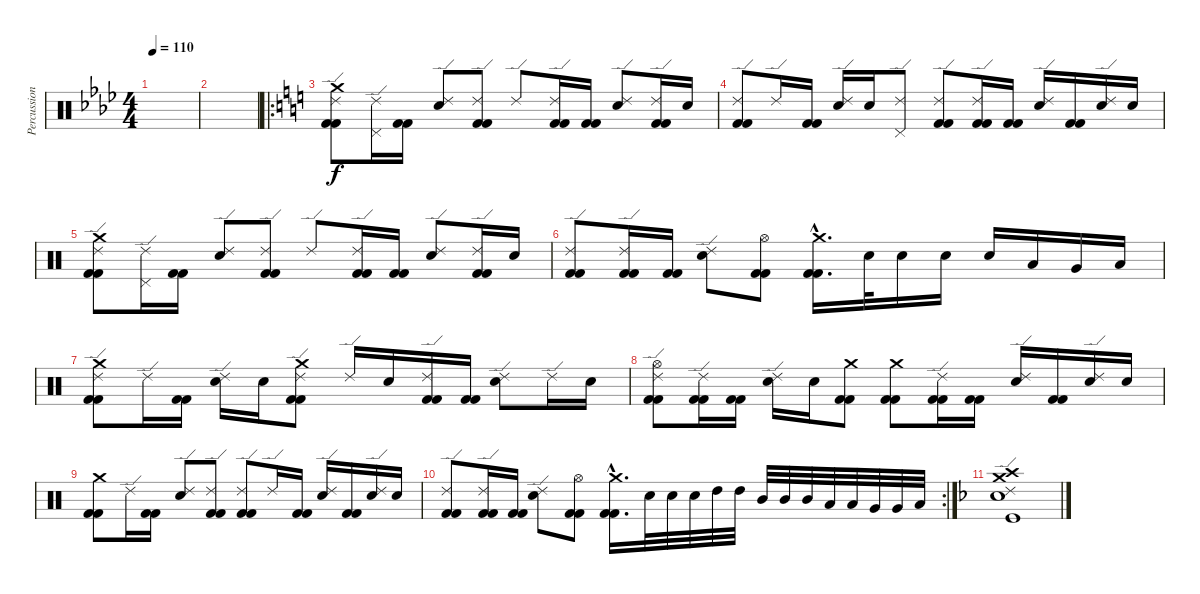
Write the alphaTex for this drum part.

\track ("Percussions" "Percussion") {instrument percussion}
\staff {score}
\articulation defaults
\ts (4 4)
\tempo 110
\clef neutral
\ks ab
|
|
\ro
\ks c
("Crash medium (hit)" "Ride (edge) 2" "Kick (hit) 2" "Kick (hit) 2").8 ("Ride (edge) 2" "Pedal Hi-Hat (hit)").16 ("Kick (hit) 2" "Kick (hit) 2").16 ("Ride (edge) 2" "Snare (hit) 2").8 ("Ride (edge) 2" "Kick (hit) 2" "Kick (hit) 2").8 "Ride (edge) 2".8 ("Ride (edge) 2" "Kick (hit) 2" "Kick (hit) 2").16 ("Kick (hit) 2" "Kick (hit) 2").16 ("Ride (edge) 2" "Snare (hit) 2").8 ("Ride (edge) 2" "Kick (hit) 2" "Kick (hit) 2").16 "Snare (hit) 2".16 |
("Ride (edge) 2" "Kick (hit) 2" "Kick (hit) 2").8 "Ride (edge) 2".16 ("Kick (hit) 2" "Kick (hit) 2").16 ("Ride (edge) 2" "Snare (hit) 2").16 "Snare (hit) 2".16 ("Ride (edge) 2" "Pedal Hi-Hat (hit)").8 ("Ride (edge) 2" "Kick (hit) 2" "Kick (hit) 2").8 ("Ride (edge) 2" "Kick (hit) 2" "Kick (hit) 2").16 ("Kick (hit) 2" "Kick (hit) 2").16 ("Ride (edge) 2" "Snare (hit) 2").16 ("Kick (hit) 2" "Kick (hit) 2").16 ("Ride (edge) 2" "Snare (hit) 2").16 "Snare (hit) 2".16 |
("Crash medium (hit)" "Ride (edge) 2" "Kick (hit) 2" "Kick (hit) 2").8 ("Ride (edge) 2" "Pedal Hi-Hat (hit)").16 ("Kick (hit) 2" "Kick (hit) 2").16 ("Ride (edge) 2" "Snare (hit) 2").8 ("Ride (edge) 2" "Kick (hit) 2" "Kick (hit) 2").8 "Ride (edge) 2".8 ("Ride (edge) 2" "Kick (hit) 2" "Kick (hit) 2").16 ("Kick (hit) 2" "Kick (hit) 2").16 ("Ride (edge) 2" "Snare (hit) 2").8 ("Ride (edge) 2" "Kick (hit) 2" "Kick (hit) 2").16 "Snare (hit) 2".16 |
("Ride (edge) 2" "Kick (hit) 2" "Kick (hit) 2").8 ("Ride (edge) 2" "Kick (hit) 2" "Kick (hit) 2").16 ("Kick (hit) 2" "Kick (hit) 2").16 ("Ride (edge) 2" "Snare (hit) 2").8 ("Hi-Hat (open)" "Kick (hit) 2" "Kick (hit) 2").8 ("Crash medium (hit)" "Kick (hit) 2"{hac} "Kick (hit) 2"{hac}).16{d} "Snare (hit) 2".32 "Snare (hit) 2".16 "Snare (hit) 2".16 "Snare (hit) 2".16 "Low Tom (hit)".16 "Very Low Tom (hit)".16 "Low Floor Tom (hit)".16 |
("Crash medium (hit)" "Ride (edge) 2" "Kick (hit) 2" "Kick (hit) 2").8 "Ride (edge) 2".16 ("Kick (hit) 2" "Kick (hit) 2").16 ("Ride (edge) 2" "Snare (hit) 2").16 "Snare (hit) 2".16 ("Crash medium (hit)" "Ride (edge) 2" "Kick (hit) 2" "Kick (hit) 2").8 "Ride (edge) 2".16 "Snare (hit) 2".16 ("Ride (edge) 2" "Kick (hit) 2" "Kick (hit) 2").16 ("Kick (hit) 2" "Kick (hit) 2").16 ("Ride (edge) 2" "Snare (hit) 2").8 "Ride (edge) 2".16 "Snare (hit) 2".16 |
("Hi-Hat (open)" "Ride (edge) 2" "Kick (hit) 2" "Kick (hit) 2").8 ("Ride (edge) 2" "Kick (hit) 2" "Kick (hit) 2").16 ("Kick (hit) 2" "Kick (hit) 2").16 ("Ride (edge) 2" "Snare (hit) 2").16 "Snare (hit) 2".16 ("Crash medium (hit)" "Kick (hit) 2" "Kick (hit) 2").8 ("Crash medium (hit)" "Kick (hit) 2" "Kick (hit) 2").8 ("Ride (edge) 2" "Kick (hit) 2" "Kick (hit) 2").16 ("Kick (hit) 2" "Kick (hit) 2").16 ("Ride (edge) 2" "Snare (hit) 2").16 ("Kick (hit) 2" "Kick (hit) 2").16 ("Ride (edge) 2" "Snare (hit) 2").16 "Snare (hit) 2".16 |
("Crash medium (hit)" "Kick (hit) 2" "Kick (hit) 2").8 "Ride (edge) 2".16 ("Kick (hit) 2" "Kick (hit) 2").16 ("Ride (edge) 2" "Snare (hit) 2").8 ("Ride (edge) 2" "Kick (hit) 2" "Kick (hit) 2").8 ("Ride (edge) 2" "Kick (hit) 2" "Kick (hit) 2").8 "Ride (edge) 2".16 ("Kick (hit) 2" "Kick (hit) 2").16 ("Ride (edge) 2" "Snare (hit) 2").16 ("Kick (hit) 2" "Kick (hit) 2").16 ("Ride (edge) 2" "Snare (hit) 2").16 "Snare (hit) 2".16 |
\rc 2
("Ride (edge) 2" "Kick (hit) 2" "Kick (hit) 2").8 ("Ride (edge) 2" "Kick (hit) 2" "Kick (hit) 2").16 ("Kick (hit) 2" "Kick (hit) 2").16 ("Ride (edge) 2" "Snare (hit) 2").8 ("Hi-Hat (open)" "Kick (hit) 2" "Kick (hit) 2").8 ("Crash medium (hit)" "Kick (hit) 2"{hac} "Kick (hit) 2"{hac}).16{d} "Snare (hit) 2".32 "Snare (hit) 2".32 "Snare (hit) 2".32 "High Tom (hit)".32 "High Tom (hit)".32 "Mid Tom (hit)".32 "Mid Tom (hit)".32 "Mid Tom (hit)".32 "Low Tom (hit)".32 "Low Tom (hit)".32 "Very Low Tom (hit)".32 "Very Low Tom (hit)".32 "Low Floor Tom (hit)".32 |
\ks f
("Crash high (hit)" "Crash medium (hit)" "Ride (edge) 2" "Electric Snare (hit)" "Kick (hit)").1
